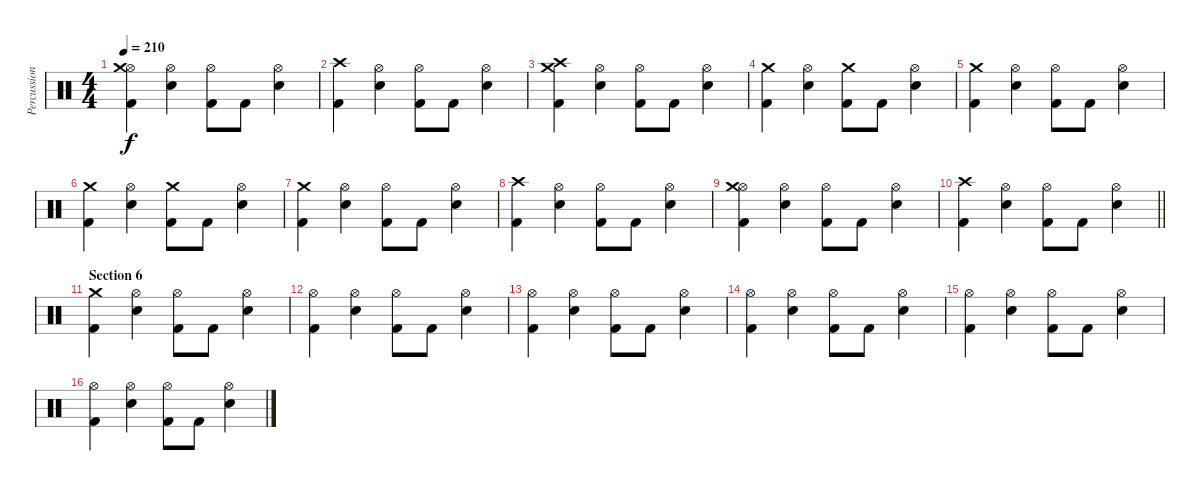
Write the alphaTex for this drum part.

\track ("Percussion" "Percussion") {instrument percussion}
\staff {score}
\articulation defaults
\ts (4 4)
\tempo 210
\clef neutral
\ks c
("Kick (hit) 2" "Hi-Hat (open)" "Crash medium (hit)").4{dy f} ("Electric Snare (hit)" "Hi-Hat (open)").4 ("Kick (hit) 2" "Hi-Hat (open)").8 "Kick (hit) 2".8 ("Electric Snare (hit)" "Hi-Hat (open)").4 |
("Kick (hit) 2" "Crash high (hit)").4 ("Electric Snare (hit)" "Hi-Hat (open)").4 ("Kick (hit) 2" "Hi-Hat (open)").8 "Kick (hit) 2".8 ("Electric Snare (hit)" "Hi-Hat (open)").4 |
("Kick (hit) 2" "Crash high (hit)" "Crash medium (hit)").4 ("Electric Snare (hit)" "Hi-Hat (open)").4 ("Kick (hit) 2" "Hi-Hat (open)").8 "Kick (hit) 2".8 ("Electric Snare (hit)" "Hi-Hat (open)").4 |
("Kick (hit) 2" "Crash medium (hit)").4 ("Electric Snare (hit)" "Hi-Hat (open)").4 ("Kick (hit) 2" "Crash medium (hit)").8 "Kick (hit) 2".8 ("Electric Snare (hit)" "Hi-Hat (open)").4 |
("Kick (hit) 2" "Crash medium (hit)").4 ("Electric Snare (hit)" "Hi-Hat (open)").4 ("Kick (hit) 2" "Hi-Hat (open)").8 "Kick (hit) 2".8 ("Electric Snare (hit)" "Hi-Hat (open)").4 |
("Kick (hit) 2" "Crash medium (hit)").4 ("Electric Snare (hit)" "Hi-Hat (open)").4 ("Kick (hit) 2" "Crash medium (hit)").8 "Kick (hit) 2".8 ("Electric Snare (hit)" "Hi-Hat (open)").4 |
("Kick (hit) 2" "Crash medium (hit)").4 ("Electric Snare (hit)" "Hi-Hat (open)").4 ("Kick (hit) 2" "Hi-Hat (open)").8 "Kick (hit) 2".8 ("Electric Snare (hit)" "Hi-Hat (open)").4 |
("Kick (hit) 2" "Crash high (hit)").4 ("Electric Snare (hit)" "Hi-Hat (open)").4 ("Kick (hit) 2" "Hi-Hat (open)").8 "Kick (hit) 2".8 ("Electric Snare (hit)" "Hi-Hat (open)").4 |
("Kick (hit) 2" "Hi-Hat (open)" "Crash medium (hit)").4 ("Electric Snare (hit)" "Hi-Hat (open)").4 ("Kick (hit) 2" "Hi-Hat (open)").8 "Kick (hit) 2".8 ("Electric Snare (hit)" "Hi-Hat (open)").4 |
\barLineRight lightlight
("Kick (hit) 2" "Crash high (hit)").4 ("Electric Snare (hit)" "Hi-Hat (open)").4 ("Kick (hit) 2" "Hi-Hat (open)").8 "Kick (hit) 2".8 ("Electric Snare (hit)" "Hi-Hat (open)").4 |
\section ("" "Section 6")
("Kick (hit) 2" "Crash medium (hit)").4 ("Electric Snare (hit)" "Hi-Hat (open)").4 ("Kick (hit) 2" "Hi-Hat (open)").8 "Kick (hit) 2".8 ("Electric Snare (hit)" "Hi-Hat (open)").4 |
("Kick (hit) 2" "Hi-Hat (open)").4 ("Electric Snare (hit)" "Hi-Hat (open)").4 ("Kick (hit) 2" "Hi-Hat (open)").8 "Kick (hit) 2".8 ("Electric Snare (hit)" "Hi-Hat (open)").4 |
("Kick (hit) 2" "Hi-Hat (open)").4 ("Electric Snare (hit)" "Hi-Hat (open)").4 ("Kick (hit) 2" "Hi-Hat (open)").8 "Kick (hit) 2".8 ("Electric Snare (hit)" "Hi-Hat (open)").4 |
("Kick (hit) 2" "Hi-Hat (open)").4 ("Electric Snare (hit)" "Hi-Hat (open)").4 ("Kick (hit) 2" "Hi-Hat (open)").8 "Kick (hit) 2".8 ("Electric Snare (hit)" "Hi-Hat (open)").4 |
("Kick (hit) 2" "Hi-Hat (open)").4 ("Electric Snare (hit)" "Hi-Hat (open)").4 ("Kick (hit) 2" "Hi-Hat (open)").8 "Kick (hit) 2".8 ("Electric Snare (hit)" "Hi-Hat (open)").4 |
("Kick (hit) 2" "Hi-Hat (open)").4 ("Electric Snare (hit)" "Hi-Hat (open)").4 ("Kick (hit) 2" "Hi-Hat (open)").8 "Kick (hit) 2".8 ("Electric Snare (hit)" "Hi-Hat (open)").4
